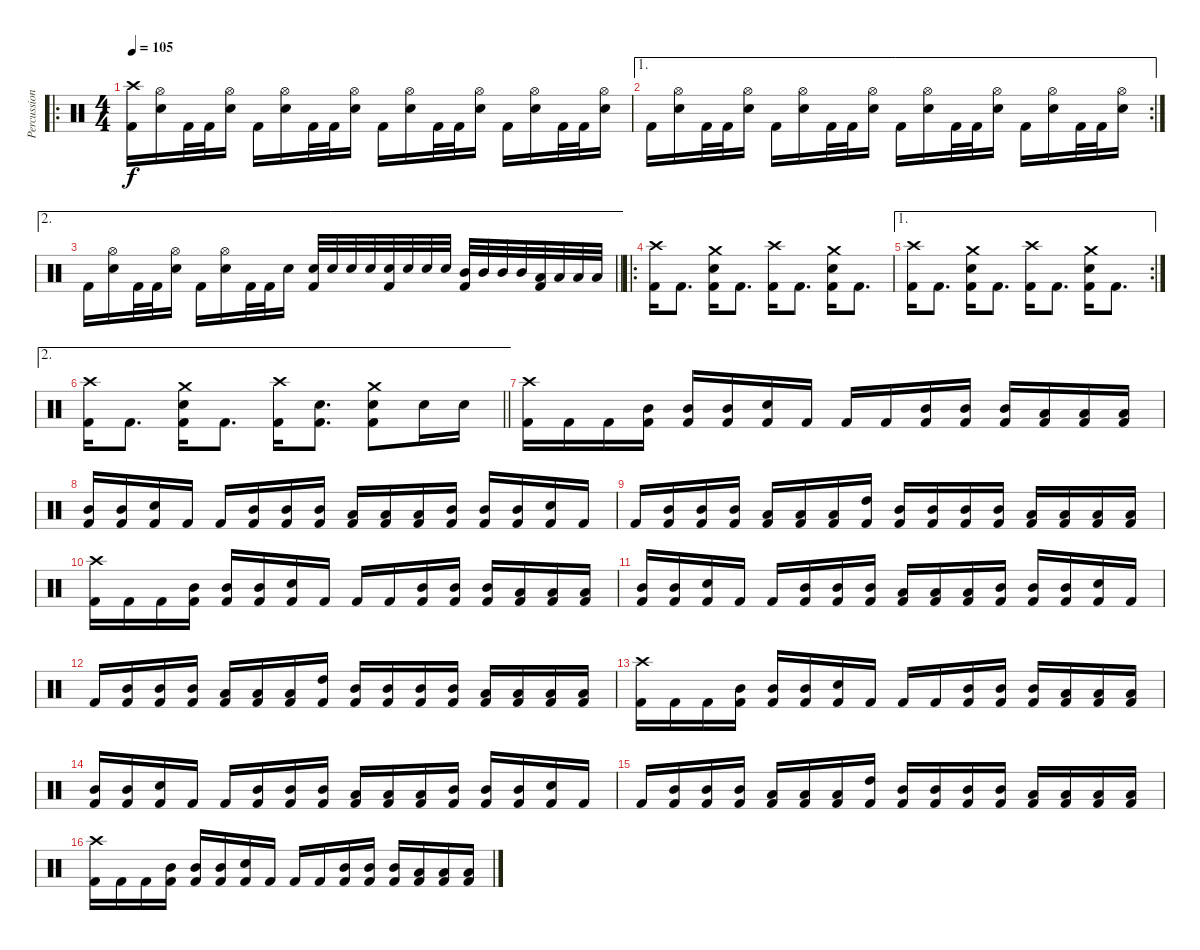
\track ("Percussion" "Percussion") {instrument percussion}
\staff {score}
\articulation defaults
\ro
\ts (4 4)
\tempo 105
\clef neutral
\ks c
("Crash high (hit)" "Kick (hit) 2").16{dy f} ("Hi-Hat (open)" "Electric Snare (hit)").16 "Kick (hit) 2".32 "Kick (hit) 2".32 ("Hi-Hat (open)" "Electric Snare (hit)").16 "Kick (hit) 2".16 ("Hi-Hat (open)" "Electric Snare (hit)").16 "Kick (hit) 2".32 "Kick (hit) 2".32 ("Hi-Hat (open)" "Electric Snare (hit)").16 "Kick (hit) 2".16 ("Hi-Hat (open)" "Electric Snare (hit)").16 "Kick (hit) 2".32 "Kick (hit) 2".32 ("Hi-Hat (open)" "Electric Snare (hit)").16 "Kick (hit) 2".16 ("Hi-Hat (open)" "Electric Snare (hit)").16 "Kick (hit) 2".32 "Kick (hit) 2".32 ("Hi-Hat (open)" "Electric Snare (hit)").16 |
\ae 1
\rc 2 "Kick (hit) 2".16
("Hi-Hat (open)" "Electric Snare (hit)").16 "Kick (hit) 2".32 "Kick (hit) 2".32 ("Hi-Hat (open)" "Electric Snare (hit)").16 "Kick (hit) 2".16 ("Hi-Hat (open)" "Electric Snare (hit)").16 "Kick (hit) 2".32 "Kick (hit) 2".32 ("Hi-Hat (open)" "Electric Snare (hit)").16 "Kick (hit) 2".16 ("Hi-Hat (open)" "Electric Snare (hit)").16 "Kick (hit) 2".32 "Kick (hit) 2".32 ("Hi-Hat (open)" "Electric Snare (hit)").16 "Kick (hit) 2".16 ("Hi-Hat (open)" "Electric Snare (hit)").16 "Kick (hit) 2".32 "Kick (hit) 2".32 ("Hi-Hat (open)" "Electric Snare (hit)").16 |
\ae 2
\barLineRight lightlight "Kick (hit) 2".16
("Hi-Hat (open)" "Electric Snare (hit)").16 "Kick (hit) 2".32 "Kick (hit) 2".32 ("Hi-Hat (open)" "Electric Snare (hit)").16 "Kick (hit) 2".16 ("Hi-Hat (open)" "Electric Snare (hit)").16 "Kick (hit) 2".32 "Kick (hit) 2".32 "Electric Snare (hit)".16 ("Electric Snare (hit)" "Kick (hit) 2").32 "Electric Snare (hit)".32 "Electric Snare (hit)".32 "Electric Snare (hit)".32 ("Electric Snare (hit)" "Kick (hit) 2").32 "Electric Snare (hit)".32 "Electric Snare (hit)".32 "Electric Snare (hit)".32 ("Mid Tom (hit)" "Kick (hit) 2").32 "Mid Tom (hit)".32 "Mid Tom (hit)".32 "Mid Tom (hit)".32 ("Low Tom (hit)" "Kick (hit) 2").32 "Low Tom (hit)".32 "Low Tom (hit)".32 "Low Tom (hit)".32 |
\ro
("Crash high (hit)" "Kick (hit) 2").16 "Kick (hit) 2".8{d} ("Crash medium (hit)" "Electric Snare (hit)" "Kick (hit) 2").16 "Kick (hit) 2".8{d} ("Crash high (hit)" "Kick (hit) 2").16 "Kick (hit) 2".8{d} ("Crash medium (hit)" "Electric Snare (hit)" "Kick (hit) 2").16 "Kick (hit) 2".8{d} |
\ae 1
\rc 2
("Crash high (hit)" "Kick (hit) 2").16 "Kick (hit) 2".8{d} ("Crash medium (hit)" "Electric Snare (hit)" "Kick (hit) 2").16 "Kick (hit) 2".8{d} ("Crash high (hit)" "Kick (hit) 2").16 "Kick (hit) 2".8{d} ("Crash medium (hit)" "Electric Snare (hit)" "Kick (hit) 2").16 "Kick (hit) 2".8{d} |
\ae 2
\barLineRight lightlight
("Crash high (hit)" "Kick (hit) 2").16 "Kick (hit) 2".8{d} ("Crash medium (hit)" "Electric Snare (hit)" "Kick (hit) 2").16 "Kick (hit) 2".8{d} ("Crash high (hit)" "Kick (hit) 2").16 ("Electric Snare (hit)" "Kick (hit) 2").8{d} ("Crash medium (hit)" "Electric Snare (hit)" "Kick (hit) 2").8 "Electric Snare (hit)".16 "Electric Snare (hit)".16 |
("Crash high (hit)" "Kick (hit) 2").16 "Kick (hit) 2".16 "Kick (hit) 2".16 ("Mid Tom (hit)" "Kick (hit) 2").16 ("Mid Tom (hit)" "Kick (hit) 2").16 ("Mid Tom (hit)" "Kick (hit) 2").16 ("Electric Snare (hit)" "Kick (hit) 2").16 "Kick (hit) 2".16 "Kick (hit) 2".16 "Kick (hit) 2".16 ("Mid Tom (hit)" "Kick (hit) 2").16 ("Mid Tom (hit)" "Kick (hit) 2").16 ("Mid Tom (hit)" "Kick (hit) 2").16 ("Low Tom (hit)" "Kick (hit) 2").16 ("Low Tom (hit)" "Kick (hit) 2").16 ("Low Tom (hit)" "Kick (hit) 2").16 |
("Mid Tom (hit)" "Kick (hit) 2").16 ("Mid Tom (hit)" "Kick (hit) 2").16 ("Electric Snare (hit)" "Kick (hit) 2").16 "Kick (hit) 2".16 "Kick (hit) 2".16 ("Mid Tom (hit)" "Kick (hit) 2").16 ("Mid Tom (hit)" "Kick (hit) 2").16 ("Mid Tom (hit)" "Kick (hit) 2").16 ("Low Tom (hit)" "Kick (hit) 2").16 ("Low Tom (hit)" "Kick (hit) 2").16 ("Low Tom (hit)" "Kick (hit) 2").16 ("Mid Tom (hit)" "Kick (hit) 2").16 ("Mid Tom (hit)" "Kick (hit) 2").16 ("Mid Tom (hit)" "Kick (hit) 2").16 ("Electric Snare (hit)" "Kick (hit) 2").16 "Kick (hit) 2".16 |
"Kick (hit) 2".16 ("Mid Tom (hit)" "Kick (hit) 2").16 ("Mid Tom (hit)" "Kick (hit) 2").16 ("Mid Tom (hit)" "Kick (hit) 2").16 ("Low Tom (hit)" "Kick (hit) 2").16 ("Low Tom (hit)" "Kick (hit) 2").16 ("Low Tom (hit)" "Kick (hit) 2").16 ("High Tom (hit)" "Kick (hit) 2").16 ("Mid Tom (hit)" "Kick (hit) 2").16 ("Mid Tom (hit)" "Kick (hit) 2").16 ("Mid Tom (hit)" "Kick (hit) 2").16 ("Mid Tom (hit)" "Kick (hit) 2").16 ("Low Tom (hit)" "Kick (hit) 2").16 ("Low Tom (hit)" "Kick (hit) 2").16 ("Low Tom (hit)" "Kick (hit) 2").16 ("Low Tom (hit)" "Kick (hit) 2").16 |
("Crash high (hit)" "Kick (hit) 2").16 "Kick (hit) 2".16 "Kick (hit) 2".16 ("Mid Tom (hit)" "Kick (hit) 2").16 ("Mid Tom (hit)" "Kick (hit) 2").16 ("Mid Tom (hit)" "Kick (hit) 2").16 ("Electric Snare (hit)" "Kick (hit) 2").16 "Kick (hit) 2".16 "Kick (hit) 2".16 "Kick (hit) 2".16 ("Mid Tom (hit)" "Kick (hit) 2").16 ("Mid Tom (hit)" "Kick (hit) 2").16 ("Mid Tom (hit)" "Kick (hit) 2").16 ("Low Tom (hit)" "Kick (hit) 2").16 ("Low Tom (hit)" "Kick (hit) 2").16 ("Low Tom (hit)" "Kick (hit) 2").16 |
("Mid Tom (hit)" "Kick (hit) 2").16 ("Mid Tom (hit)" "Kick (hit) 2").16 ("Electric Snare (hit)" "Kick (hit) 2").16 "Kick (hit) 2".16 "Kick (hit) 2".16 ("Mid Tom (hit)" "Kick (hit) 2").16 ("Mid Tom (hit)" "Kick (hit) 2").16 ("Mid Tom (hit)" "Kick (hit) 2").16 ("Low Tom (hit)" "Kick (hit) 2").16 ("Low Tom (hit)" "Kick (hit) 2").16 ("Low Tom (hit)" "Kick (hit) 2").16 ("Mid Tom (hit)" "Kick (hit) 2").16 ("Mid Tom (hit)" "Kick (hit) 2").16 ("Mid Tom (hit)" "Kick (hit) 2").16 ("Electric Snare (hit)" "Kick (hit) 2").16 "Kick (hit) 2".16 |
"Kick (hit) 2".16 ("Mid Tom (hit)" "Kick (hit) 2").16 ("Mid Tom (hit)" "Kick (hit) 2").16 ("Mid Tom (hit)" "Kick (hit) 2").16 ("Low Tom (hit)" "Kick (hit) 2").16 ("Low Tom (hit)" "Kick (hit) 2").16 ("Low Tom (hit)" "Kick (hit) 2").16 ("High Tom (hit)" "Kick (hit) 2").16 ("Mid Tom (hit)" "Kick (hit) 2").16 ("Mid Tom (hit)" "Kick (hit) 2").16 ("Mid Tom (hit)" "Kick (hit) 2").16 ("Mid Tom (hit)" "Kick (hit) 2").16 ("Low Tom (hit)" "Kick (hit) 2").16 ("Low Tom (hit)" "Kick (hit) 2").16 ("Low Tom (hit)" "Kick (hit) 2").16 ("Low Tom (hit)" "Kick (hit) 2").16 |
("Crash high (hit)" "Kick (hit) 2").16 "Kick (hit) 2".16 "Kick (hit) 2".16 ("Mid Tom (hit)" "Kick (hit) 2").16 ("Mid Tom (hit)" "Kick (hit) 2").16 ("Mid Tom (hit)" "Kick (hit) 2").16 ("Electric Snare (hit)" "Kick (hit) 2").16 "Kick (hit) 2".16 "Kick (hit) 2".16 "Kick (hit) 2".16 ("Mid Tom (hit)" "Kick (hit) 2").16 ("Mid Tom (hit)" "Kick (hit) 2").16 ("Mid Tom (hit)" "Kick (hit) 2").16 ("Low Tom (hit)" "Kick (hit) 2").16 ("Low Tom (hit)" "Kick (hit) 2").16 ("Low Tom (hit)" "Kick (hit) 2").16 |
("Mid Tom (hit)" "Kick (hit) 2").16 ("Mid Tom (hit)" "Kick (hit) 2").16 ("Electric Snare (hit)" "Kick (hit) 2").16 "Kick (hit) 2".16 "Kick (hit) 2".16 ("Mid Tom (hit)" "Kick (hit) 2").16 ("Mid Tom (hit)" "Kick (hit) 2").16 ("Mid Tom (hit)" "Kick (hit) 2").16 ("Low Tom (hit)" "Kick (hit) 2").16 ("Low Tom (hit)" "Kick (hit) 2").16 ("Low Tom (hit)" "Kick (hit) 2").16 ("Mid Tom (hit)" "Kick (hit) 2").16 ("Mid Tom (hit)" "Kick (hit) 2").16 ("Mid Tom (hit)" "Kick (hit) 2").16 ("Electric Snare (hit)" "Kick (hit) 2").16 "Kick (hit) 2".16 |
"Kick (hit) 2".16 ("Mid Tom (hit)" "Kick (hit) 2").16 ("Mid Tom (hit)" "Kick (hit) 2").16 ("Mid Tom (hit)" "Kick (hit) 2").16 ("Low Tom (hit)" "Kick (hit) 2").16 ("Low Tom (hit)" "Kick (hit) 2").16 ("Low Tom (hit)" "Kick (hit) 2").16 ("High Tom (hit)" "Kick (hit) 2").16 ("Mid Tom (hit)" "Kick (hit) 2").16 ("Mid Tom (hit)" "Kick (hit) 2").16 ("Mid Tom (hit)" "Kick (hit) 2").16 ("Mid Tom (hit)" "Kick (hit) 2").16 ("Low Tom (hit)" "Kick (hit) 2").16 ("Low Tom (hit)" "Kick (hit) 2").16 ("Low Tom (hit)" "Kick (hit) 2").16 ("Low Tom (hit)" "Kick (hit) 2").16 |
("Crash high (hit)" "Kick (hit) 2").16 "Kick (hit) 2".16 "Kick (hit) 2".16 ("Mid Tom (hit)" "Kick (hit) 2").16 ("Mid Tom (hit)" "Kick (hit) 2").16 ("Mid Tom (hit)" "Kick (hit) 2").16 ("Electric Snare (hit)" "Kick (hit) 2").16 "Kick (hit) 2".16 "Kick (hit) 2".16 "Kick (hit) 2".16 ("Mid Tom (hit)" "Kick (hit) 2").16 ("Mid Tom (hit)" "Kick (hit) 2").16 ("Mid Tom (hit)" "Kick (hit) 2").16 ("Low Tom (hit)" "Kick (hit) 2").16 ("Low Tom (hit)" "Kick (hit) 2").16 ("Low Tom (hit)" "Kick (hit) 2").16
